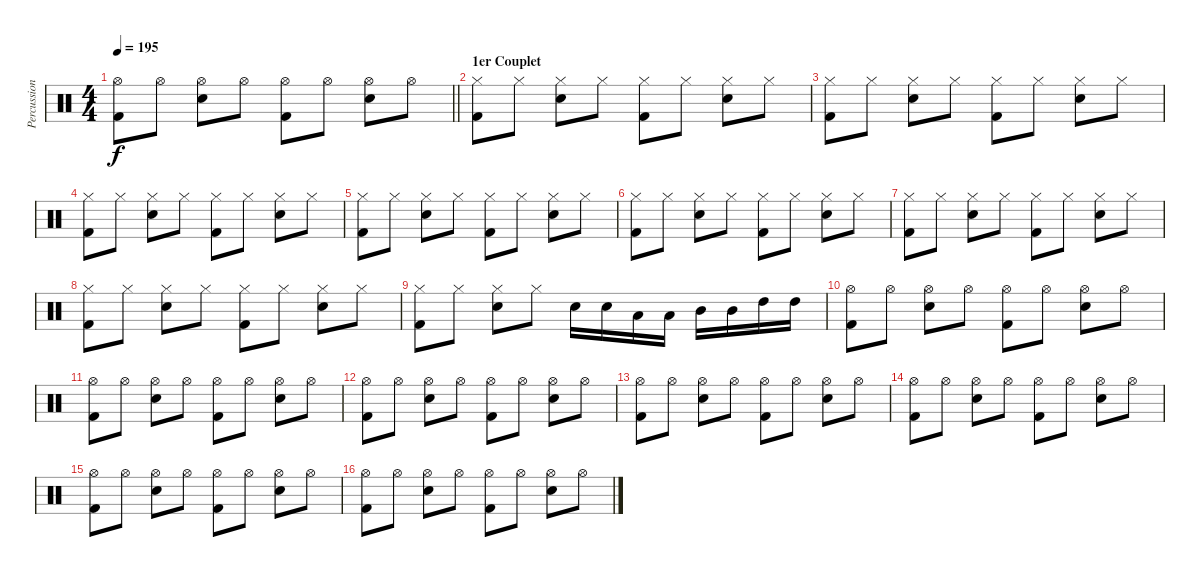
\track ("Percussions" "Percussion") {instrument percussion}
\staff {score}
\articulation defaults
\ts (4 4)
\tempo 195
\clef neutral
\barLineRight lightlight
\ks c
("Hi-Hat (open)" "Kick (hit) 2").8{dy f} "Hi-Hat (open)".8 ("Hi-Hat (open)" "Electric Snare (hit)").8 "Hi-Hat (open)".8 ("Hi-Hat (open)" "Kick (hit) 2").8 "Hi-Hat (open)".8 ("Hi-Hat (open)" "Electric Snare (hit)").8 "Hi-Hat (open)".8 |
\section ("" "1er Couplet")
("Hi-Hat (closed)" "Kick (hit) 2").8 "Hi-Hat (closed)".8 ("Hi-Hat (closed)" "Electric Snare (hit)").8 "Hi-Hat (closed)".8 ("Hi-Hat (closed)" "Kick (hit) 2").8 "Hi-Hat (closed)".8 ("Hi-Hat (closed)" "Electric Snare (hit)").8 "Hi-Hat (closed)".8 |
("Hi-Hat (closed)" "Kick (hit) 2").8 "Hi-Hat (closed)".8 ("Hi-Hat (closed)" "Electric Snare (hit)").8 "Hi-Hat (closed)".8 ("Hi-Hat (closed)" "Kick (hit) 2").8 "Hi-Hat (closed)".8 ("Hi-Hat (closed)" "Electric Snare (hit)").8 "Hi-Hat (closed)".8 |
("Hi-Hat (closed)" "Kick (hit) 2").8 "Hi-Hat (closed)".8 ("Hi-Hat (closed)" "Electric Snare (hit)").8 "Hi-Hat (closed)".8 ("Hi-Hat (closed)" "Kick (hit) 2").8 "Hi-Hat (closed)".8 ("Hi-Hat (closed)" "Electric Snare (hit)").8 "Hi-Hat (closed)".8 |
("Hi-Hat (closed)" "Kick (hit) 2").8 "Hi-Hat (closed)".8 ("Hi-Hat (closed)" "Electric Snare (hit)").8 "Hi-Hat (closed)".8 ("Hi-Hat (closed)" "Kick (hit) 2").8 "Hi-Hat (closed)".8 ("Hi-Hat (closed)" "Electric Snare (hit)").8 "Hi-Hat (closed)".8 |
("Hi-Hat (closed)" "Kick (hit) 2").8 "Hi-Hat (closed)".8 ("Hi-Hat (closed)" "Electric Snare (hit)").8 "Hi-Hat (closed)".8 ("Hi-Hat (closed)" "Kick (hit) 2").8 "Hi-Hat (closed)".8 ("Hi-Hat (closed)" "Electric Snare (hit)").8 "Hi-Hat (closed)".8 |
("Hi-Hat (closed)" "Kick (hit) 2").8 "Hi-Hat (closed)".8 ("Hi-Hat (closed)" "Electric Snare (hit)").8 "Hi-Hat (closed)".8 ("Hi-Hat (closed)" "Kick (hit) 2").8 "Hi-Hat (closed)".8 ("Hi-Hat (closed)" "Electric Snare (hit)").8 "Hi-Hat (closed)".8 |
("Hi-Hat (closed)" "Kick (hit) 2").8 "Hi-Hat (closed)".8 ("Hi-Hat (closed)" "Electric Snare (hit)").8 "Hi-Hat (closed)".8 ("Hi-Hat (closed)" "Kick (hit) 2").8 "Hi-Hat (closed)".8 ("Hi-Hat (closed)" "Electric Snare (hit)").8 "Hi-Hat (closed)".8 |
("Hi-Hat (closed)" "Kick (hit) 2").8 "Hi-Hat (closed)".8 ("Hi-Hat (closed)" "Electric Snare (hit)").8 "Hi-Hat (closed)".8 "Electric Snare (hit)".16 "Electric Snare (hit)".16 "Low Tom (hit)".16 "Low Tom (hit)".16 "Mid Tom (hit)".16 "Mid Tom (hit)".16 "High Tom (hit)".16 "High Tom (hit)".16 |
("Hi-Hat (open)" "Kick (hit) 2").8 "Hi-Hat (open)".8 ("Hi-Hat (open)" "Electric Snare (hit)").8 "Hi-Hat (open)".8 ("Hi-Hat (open)" "Kick (hit) 2").8 "Hi-Hat (open)".8 ("Hi-Hat (open)" "Electric Snare (hit)").8 "Hi-Hat (open)".8 |
("Hi-Hat (open)" "Kick (hit) 2").8 "Hi-Hat (open)".8 ("Hi-Hat (open)" "Electric Snare (hit)").8 "Hi-Hat (open)".8 ("Hi-Hat (open)" "Kick (hit) 2").8 "Hi-Hat (open)".8 ("Hi-Hat (open)" "Electric Snare (hit)").8 "Hi-Hat (open)".8 |
("Hi-Hat (open)" "Kick (hit) 2").8 "Hi-Hat (open)".8 ("Hi-Hat (open)" "Electric Snare (hit)").8 "Hi-Hat (open)".8 ("Hi-Hat (open)" "Kick (hit) 2").8 "Hi-Hat (open)".8 ("Hi-Hat (open)" "Electric Snare (hit)").8 "Hi-Hat (open)".8 |
("Hi-Hat (open)" "Kick (hit) 2").8 "Hi-Hat (open)".8 ("Hi-Hat (open)" "Electric Snare (hit)").8 "Hi-Hat (open)".8 ("Hi-Hat (open)" "Kick (hit) 2").8 "Hi-Hat (open)".8 ("Hi-Hat (open)" "Electric Snare (hit)").8 "Hi-Hat (open)".8 |
("Hi-Hat (open)" "Kick (hit) 2").8 "Hi-Hat (open)".8 ("Hi-Hat (open)" "Electric Snare (hit)").8 "Hi-Hat (open)".8 ("Hi-Hat (open)" "Kick (hit) 2").8 "Hi-Hat (open)".8 ("Hi-Hat (open)" "Electric Snare (hit)").8 "Hi-Hat (open)".8 |
("Hi-Hat (open)" "Kick (hit) 2").8 "Hi-Hat (open)".8 ("Hi-Hat (open)" "Electric Snare (hit)").8 "Hi-Hat (open)".8 ("Hi-Hat (open)" "Kick (hit) 2").8 "Hi-Hat (open)".8 ("Hi-Hat (open)" "Electric Snare (hit)").8 "Hi-Hat (open)".8 |
("Hi-Hat (open)" "Kick (hit) 2").8 "Hi-Hat (open)".8 ("Hi-Hat (open)" "Electric Snare (hit)").8 "Hi-Hat (open)".8 ("Hi-Hat (open)" "Kick (hit) 2").8 "Hi-Hat (open)".8 ("Hi-Hat (open)" "Electric Snare (hit)").8 "Hi-Hat (open)".8
